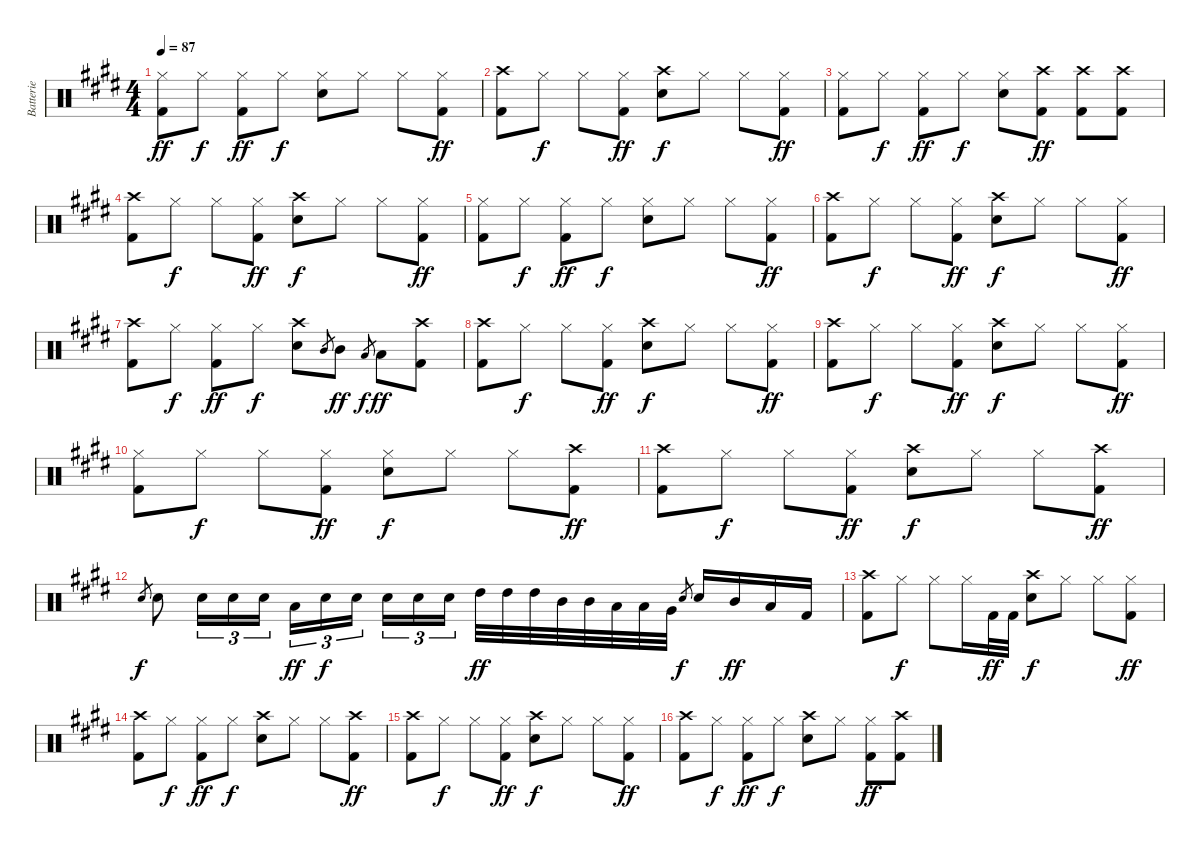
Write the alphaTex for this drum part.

\track ("Batterie" "Batterie") {instrument percussion}
\staff {score}
\articulation defaults
\ts (4 4)
\tempo 87
\clef neutral
\ks e
("Hi-Hat (closed)" "Kick (hit) 2").8{dy ff} "Hi-Hat (closed)".8{dy f} ("Hi-Hat (closed)" "Kick (hit) 2").8{dy ff} "Hi-Hat (closed)".8{dy f} ("Hi-Hat (closed)" "Snare (hit) 2").8 "Hi-Hat (closed)".8 "Hi-Hat (closed)".8 ("Hi-Hat (closed)" "Kick (hit) 2").8{dy ff} |
("Crash high (hit)" "Kick (hit) 2").8 "Hi-Hat (closed)".8{dy f} "Hi-Hat (closed)".8 ("Hi-Hat (closed)" "Kick (hit) 2").8{dy ff} ("Crash high (hit)" "Snare (hit) 2").8{dy f} "Hi-Hat (closed)".8 "Hi-Hat (closed)".8 ("Hi-Hat (closed)" "Kick (hit) 2").8{dy ff} |
("Hi-Hat (closed)" "Kick (hit) 2").8 "Hi-Hat (closed)".8{dy f} ("Hi-Hat (closed)" "Kick (hit) 2").8{dy ff} "Hi-Hat (closed)".8{dy f} ("Hi-Hat (closed)" "Snare (hit) 2").8 ("Crash high (hit)" "Kick (hit) 2").8{dy ff} ("Crash high (hit)" "Kick (hit) 2").8 ("Crash high (hit)" "Kick (hit) 2").8 |
("Crash high (hit)" "Kick (hit) 2").8 "Hi-Hat (closed)".8{dy f} "Hi-Hat (closed)".8 ("Hi-Hat (closed)" "Kick (hit) 2").8{dy ff} ("Crash high (hit)" "Snare (hit) 2").8{dy f} "Hi-Hat (closed)".8 "Hi-Hat (closed)".8 ("Hi-Hat (closed)" "Kick (hit) 2").8{dy ff} |
("Hi-Hat (closed)" "Kick (hit) 2").8 "Hi-Hat (closed)".8{dy f} ("Hi-Hat (closed)" "Kick (hit) 2").8{dy ff} "Hi-Hat (closed)".8{dy f} ("Hi-Hat (closed)" "Snare (hit) 2").8 "Hi-Hat (closed)".8 "Hi-Hat (closed)".8 ("Hi-Hat (closed)" "Kick (hit) 2").8{dy ff} |
("Crash high (hit)" "Kick (hit) 2").8 "Hi-Hat (closed)".8{dy f} "Hi-Hat (closed)".8 ("Hi-Hat (closed)" "Kick (hit) 2").8{dy ff} ("Crash high (hit)" "Snare (hit) 2").8{dy f} "Hi-Hat (closed)".8 "Hi-Hat (closed)".8 ("Hi-Hat (closed)" "Kick (hit) 2").8{dy ff} |
("Crash high (hit)" "Kick (hit) 2").8 "Hi-Hat (closed)".8{dy f} ("Hi-Hat (closed)" "Kick (hit) 2").8{dy ff} "Hi-Hat (closed)".8{dy f} ("Crash high (hit)" "Snare (hit) 2").8 "Mid Tom (hit)".8{gr} "Mid Tom (hit)".8{dy ff} "Low Tom (hit)".8{gr dy f} "Low Tom (hit)".8{dy ff} ("Crash high (hit)" "Kick (hit) 2").8 |
("Crash high (hit)" "Kick (hit) 2").8 "Hi-Hat (closed)".8{dy f} "Hi-Hat (closed)".8 ("Hi-Hat (closed)" "Kick (hit) 2").8{dy ff} ("Crash high (hit)" "Snare (hit) 2").8{dy f} "Hi-Hat (closed)".8 "Hi-Hat (closed)".8 ("Hi-Hat (closed)" "Kick (hit) 2").8{dy ff} |
("Crash high (hit)" "Kick (hit) 2").8 "Hi-Hat (closed)".8{dy f} "Hi-Hat (closed)".8 ("Hi-Hat (closed)" "Kick (hit) 2").8{dy ff} ("Crash high (hit)" "Snare (hit) 2").8{dy f} "Hi-Hat (closed)".8 "Hi-Hat (closed)".8 ("Hi-Hat (closed)" "Kick (hit) 2").8{dy ff} |
("Hi-Hat (closed)" "Kick (hit) 2").8 "Hi-Hat (closed)".8{dy f} "Hi-Hat (closed)".8 ("Hi-Hat (closed)" "Kick (hit) 2").8{dy ff} ("Hi-Hat (closed)" "Snare (hit) 2").8{dy f} "Hi-Hat (closed)".8 "Hi-Hat (closed)".8 ("Crash high (hit)" "Kick (hit) 2").8{dy ff} |
("Crash high (hit)" "Kick (hit) 2").8 "Hi-Hat (closed)".8{dy f} "Hi-Hat (closed)".8 ("Hi-Hat (closed)" "Kick (hit) 2").8{dy ff} ("Crash high (hit)" "Snare (hit) 2").8{dy f} "Hi-Hat (closed)".8 "Hi-Hat (closed)".8 ("Crash high (hit)" "Kick (hit) 2").8{dy ff} |
"Snare (hit) 2".8{gr dy f} "Snare (hit) 2".8 "Snare (hit) 2".16{tu (3 2)} "Snare (hit) 2".16{tu (3 2)} "Snare (hit) 2".16{tu (3 2)} "Low Tom (hit)".16{tu (3 2) dy ff} "Snare (hit) 2".16{tu (3 2) dy f} "Snare (hit) 2".16{tu (3 2)} "Snare (hit) 2".16{tu (3 2)} "Snare (hit) 2".16{tu (3 2)} "Snare (hit) 2".16{tu (3 2)} "High Tom (hit)".32{dy ff} "High Tom (hit)".32 "High Tom (hit)".32 "Mid Tom (hit)".32 "Mid Tom (hit)".32 "Low Tom (hit)".32 "Low Tom (hit)".32 "Very Low Tom (hit)".32 "Snare (hit) 2".8{gr dy f} "Snare (hit) 2".16 "Mid Tom (hit)".16{dy ff} "Low Tom (hit)".16 "Kick (hit) 2".16 |
("Crash high (hit)" "Kick (hit) 2").8 "Hi-Hat (closed)".8{dy f} "Hi-Hat (closed)".8 "Hi-Hat (closed)".16 "Kick (hit) 2".32{dy ff} "Kick (hit) 2".32 ("Crash high (hit)" "Snare (hit) 2").8{dy f} "Hi-Hat (closed)".8 "Hi-Hat (closed)".8 ("Hi-Hat (closed)" "Kick (hit) 2").8{dy ff} |
("Crash high (hit)" "Kick (hit) 2").8 "Hi-Hat (closed)".8{dy f} ("Hi-Hat (closed)" "Kick (hit) 2").8{dy ff} "Hi-Hat (closed)".8{dy f} ("Crash high (hit)" "Snare (hit) 2").8 "Hi-Hat (closed)".8 "Hi-Hat (closed)".8 ("Crash high (hit)" "Kick (hit) 2").8{dy ff} |
("Crash high (hit)" "Kick (hit) 2").8 "Hi-Hat (closed)".8{dy f} "Hi-Hat (closed)".8 ("Hi-Hat (closed)" "Kick (hit) 2").8{dy ff} ("Crash high (hit)" "Snare (hit) 2").8{dy f} "Hi-Hat (closed)".8 "Hi-Hat (closed)".8 ("Hi-Hat (closed)" "Kick (hit) 2").8{dy ff} |
("Crash high (hit)" "Kick (hit) 2").8 "Hi-Hat (closed)".8{dy f} ("Hi-Hat (closed)" "Kick (hit) 2").8{dy ff} "Hi-Hat (closed)".8{dy f} ("Crash high (hit)" "Snare (hit) 2").8 "Hi-Hat (closed)".8 ("Hi-Hat (closed)" "Kick (hit) 2").8{dy ff} ("Crash high (hit)" "Kick (hit) 2").8
